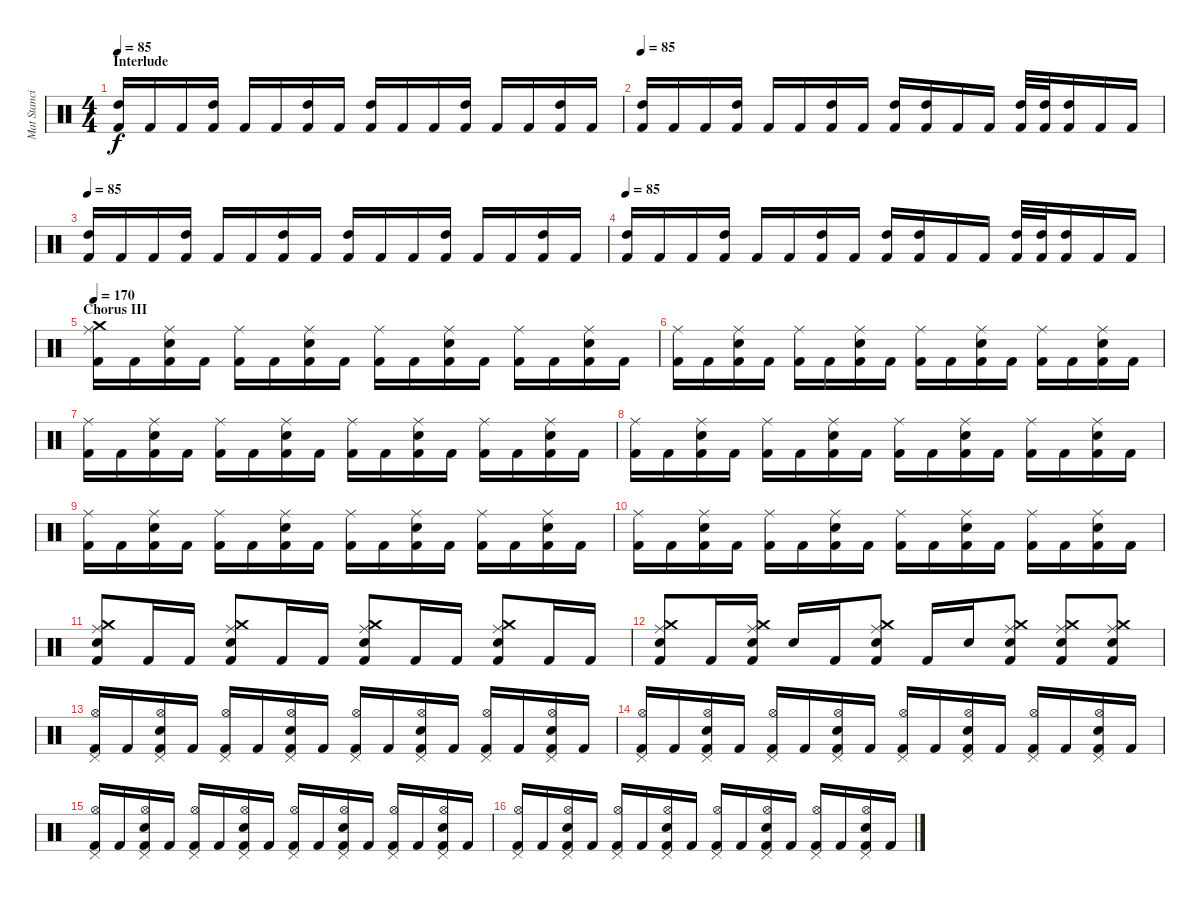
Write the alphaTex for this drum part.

\track ("Mat Stancioiu" "Mat Stanci") {instrument percussion}
\staff {score}
\articulation defaults
\ts (4 4)
\section ("" "Interlude")
\tempo 85
\clef neutral
\ks c
("High Tom (hit)" "Kick (hit) 2").16{dy f volume 10} "Kick (hit) 2".16 "Kick (hit) 2".16 ("High Tom (hit)" "Kick (hit) 2").16 "Kick (hit) 2".16 "Kick (hit) 2".16 ("High Tom (hit)" "Kick (hit) 2").16 "Kick (hit) 2".16 ("High Tom (hit)" "Kick (hit) 2").16 "Kick (hit) 2".16 "Kick (hit) 2".16 ("High Tom (hit)" "Kick (hit) 2").16 "Kick (hit) 2".16 "Kick (hit) 2".16 ("High Tom (hit)" "Kick (hit) 2").16 "Kick (hit) 2".16 |
\tempo 85
("High Tom (hit)" "Kick (hit) 2").16{volume 10} "Kick (hit) 2".16 "Kick (hit) 2".16 ("High Tom (hit)" "Kick (hit) 2").16 "Kick (hit) 2".16 "Kick (hit) 2".16 ("High Tom (hit)" "Kick (hit) 2").16 "Kick (hit) 2".16 ("High Tom (hit)" "Kick (hit) 2").16 ("High Tom (hit)" "Kick (hit) 2").16 "Kick (hit) 2".16 "Kick (hit) 2".16 ("High Tom (hit)" "Kick (hit) 2").32 ("High Tom (hit)" "Kick (hit) 2").32 ("High Tom (hit)" "Kick (hit) 2").16 "Kick (hit) 2".16 "Kick (hit) 2".16 |
\tempo 85
("High Tom (hit)" "Kick (hit) 2").16 "Kick (hit) 2".16 "Kick (hit) 2".16 ("High Tom (hit)" "Kick (hit) 2").16 "Kick (hit) 2".16 "Kick (hit) 2".16 ("High Tom (hit)" "Kick (hit) 2").16 "Kick (hit) 2".16 ("High Tom (hit)" "Kick (hit) 2").16 "Kick (hit) 2".16 "Kick (hit) 2".16 ("High Tom (hit)" "Kick (hit) 2").16 "Kick (hit) 2".16 "Kick (hit) 2".16 ("High Tom (hit)" "Kick (hit) 2").16 "Kick (hit) 2".16 |
\tempo 85
("High Tom (hit)" "Kick (hit) 2").16 "Kick (hit) 2".16 "Kick (hit) 2".16 ("High Tom (hit)" "Kick (hit) 2").16 "Kick (hit) 2".16 "Kick (hit) 2".16 ("High Tom (hit)" "Kick (hit) 2").16 "Kick (hit) 2".16 ("High Tom (hit)" "Kick (hit) 2").16 ("High Tom (hit)" "Kick (hit) 2").16 "Kick (hit) 2".16 "Kick (hit) 2".16 ("High Tom (hit)" "Kick (hit) 2").32 ("High Tom (hit)" "Kick (hit) 2").32 ("High Tom (hit)" "Kick (hit) 2").16 "Kick (hit) 2".16 "Kick (hit) 2".16 |
\section ("" "Chorus III")
\tempo 170
("Crash medium (hit)" "Kick (hit) 2" "Ride (middle)").16{volume 14} "Kick (hit) 2".16 ("Electric Snare (hit)" "Kick (hit) 2" "Ride (middle)").16 "Kick (hit) 2".16 ("Kick (hit) 2" "Ride (middle)").16 "Kick (hit) 2".16 ("Electric Snare (hit)" "Kick (hit) 2" "Ride (middle)").16 "Kick (hit) 2".16 ("Kick (hit) 2" "Ride (middle)").16 "Kick (hit) 2".16 ("Electric Snare (hit)" "Kick (hit) 2" "Ride (middle)").16 "Kick (hit) 2".16 ("Kick (hit) 2" "Ride (middle)").16 "Kick (hit) 2".16 ("Electric Snare (hit)" "Kick (hit) 2" "Ride (middle)").16 "Kick (hit) 2".16 |
("Kick (hit) 2" "Ride (middle)").16 "Kick (hit) 2".16 ("Electric Snare (hit)" "Kick (hit) 2" "Ride (middle)").16 "Kick (hit) 2".16 ("Kick (hit) 2" "Ride (middle)").16 "Kick (hit) 2".16 ("Electric Snare (hit)" "Kick (hit) 2" "Ride (middle)").16 "Kick (hit) 2".16 ("Kick (hit) 2" "Ride (middle)").16 "Kick (hit) 2".16 ("Electric Snare (hit)" "Kick (hit) 2" "Ride (middle)").16 "Kick (hit) 2".16 ("Kick (hit) 2" "Ride (middle)").16 "Kick (hit) 2".16 ("Electric Snare (hit)" "Kick (hit) 2" "Ride (middle)").16 "Kick (hit) 2".16 |
("Kick (hit) 2" "Ride (middle)").16 "Kick (hit) 2".16 ("Electric Snare (hit)" "Kick (hit) 2" "Ride (middle)").16 "Kick (hit) 2".16 ("Kick (hit) 2" "Ride (middle)").16 "Kick (hit) 2".16 ("Electric Snare (hit)" "Kick (hit) 2" "Ride (middle)").16 "Kick (hit) 2".16 ("Kick (hit) 2" "Ride (middle)").16 "Kick (hit) 2".16 ("Electric Snare (hit)" "Kick (hit) 2" "Ride (middle)").16 "Kick (hit) 2".16 ("Kick (hit) 2" "Ride (middle)").16 "Kick (hit) 2".16 ("Electric Snare (hit)" "Kick (hit) 2" "Ride (middle)").16 "Kick (hit) 2".16 |
("Kick (hit) 2" "Ride (middle)").16 "Kick (hit) 2".16 ("Electric Snare (hit)" "Kick (hit) 2" "Ride (middle)").16 "Kick (hit) 2".16 ("Kick (hit) 2" "Ride (middle)").16 "Kick (hit) 2".16 ("Electric Snare (hit)" "Kick (hit) 2" "Ride (middle)").16 "Kick (hit) 2".16 ("Kick (hit) 2" "Ride (middle)").16 "Kick (hit) 2".16 ("Electric Snare (hit)" "Kick (hit) 2" "Ride (middle)").16 "Kick (hit) 2".16 ("Kick (hit) 2" "Ride (middle)").16 "Kick (hit) 2".16 ("Electric Snare (hit)" "Kick (hit) 2" "Ride (middle)").16 "Kick (hit) 2".16 |
("Kick (hit) 2" "Ride (middle)").16 "Kick (hit) 2".16 ("Electric Snare (hit)" "Kick (hit) 2" "Ride (middle)").16 "Kick (hit) 2".16 ("Kick (hit) 2" "Ride (middle)").16 "Kick (hit) 2".16 ("Electric Snare (hit)" "Kick (hit) 2" "Ride (middle)").16 "Kick (hit) 2".16 ("Kick (hit) 2" "Ride (middle)").16 "Kick (hit) 2".16 ("Electric Snare (hit)" "Kick (hit) 2" "Ride (middle)").16 "Kick (hit) 2".16 ("Kick (hit) 2" "Ride (middle)").16 "Kick (hit) 2".16 ("Electric Snare (hit)" "Kick (hit) 2" "Ride (middle)").16 "Kick (hit) 2".16 |
("Kick (hit) 2" "Ride (middle)").16 "Kick (hit) 2".16 ("Electric Snare (hit)" "Kick (hit) 2" "Ride (middle)").16 "Kick (hit) 2".16 ("Kick (hit) 2" "Ride (middle)").16 "Kick (hit) 2".16 ("Electric Snare (hit)" "Kick (hit) 2" "Ride (middle)").16 "Kick (hit) 2".16 ("Kick (hit) 2" "Ride (middle)").16 "Kick (hit) 2".16 ("Electric Snare (hit)" "Kick (hit) 2" "Ride (middle)").16 "Kick (hit) 2".16 ("Kick (hit) 2" "Ride (middle)").16 "Kick (hit) 2".16 ("Electric Snare (hit)" "Kick (hit) 2" "Ride (middle)").16 "Kick (hit) 2".16 |
("Electric Snare (hit)" "Kick (hit) 2" "Crash medium (hit)" "Ride (middle)").8 "Kick (hit) 2".16 "Kick (hit) 2".16 ("Electric Snare (hit)" "Kick (hit) 2" "Crash medium (hit)" "Ride (middle)").8 "Kick (hit) 2".16 "Kick (hit) 2".16 ("Electric Snare (hit)" "Kick (hit) 2" "Crash medium (hit)" "Ride (middle)").8 "Kick (hit) 2".16 "Kick (hit) 2".16 ("Electric Snare (hit)" "Kick (hit) 2" "Crash medium (hit)" "Ride (middle)").8 "Kick (hit) 2".16 "Kick (hit) 2".16 |
("Electric Snare (hit)" "Kick (hit) 2" "Crash medium (hit)" "Ride (middle)").8 "Kick (hit) 2".16 ("Electric Snare (hit)" "Kick (hit) 2" "Crash medium (hit)" "Ride (middle)").16 "Electric Snare (hit)".16 "Kick (hit) 2".16 ("Electric Snare (hit)" "Kick (hit) 2" "Crash medium (hit)" "Ride (middle)").8 "Kick (hit) 2".16 "Electric Snare (hit)".16 ("Electric Snare (hit)" "Kick (hit) 2" "Crash medium (hit)" "Ride (middle)").8 ("Electric Snare (hit)" "Kick (hit) 2" "Crash medium (hit)" "Ride (middle)").8 ("Electric Snare (hit)" "Kick (hit) 2" "Crash medium (hit)" "Ride (middle)").8 |
("Hi-Hat (open)" "Kick (hit) 2" "Pedal Hi-Hat (hit)").16 "Kick (hit) 2".16 ("Electric Snare (hit)" "Hi-Hat (open)" "Kick (hit) 2" "Pedal Hi-Hat (hit)").16 "Kick (hit) 2".16 ("Hi-Hat (open)" "Kick (hit) 2" "Pedal Hi-Hat (hit)").16 "Kick (hit) 2".16 ("Electric Snare (hit)" "Hi-Hat (open)" "Kick (hit) 2" "Pedal Hi-Hat (hit)").16 "Kick (hit) 2".16 ("Hi-Hat (open)" "Kick (hit) 2" "Pedal Hi-Hat (hit)").16 "Kick (hit) 2".16 ("Electric Snare (hit)" "Hi-Hat (open)" "Kick (hit) 2" "Pedal Hi-Hat (hit)").16 "Kick (hit) 2".16 ("Hi-Hat (open)" "Kick (hit) 2" "Pedal Hi-Hat (hit)").16 "Kick (hit) 2".16 ("Electric Snare (hit)" "Hi-Hat (open)" "Kick (hit) 2" "Pedal Hi-Hat (hit)").16 "Kick (hit) 2".16 |
("Hi-Hat (open)" "Kick (hit) 2" "Pedal Hi-Hat (hit)").16 "Kick (hit) 2".16 ("Electric Snare (hit)" "Hi-Hat (open)" "Kick (hit) 2" "Pedal Hi-Hat (hit)").16 "Kick (hit) 2".16 ("Hi-Hat (open)" "Kick (hit) 2" "Pedal Hi-Hat (hit)").16 "Kick (hit) 2".16 ("Electric Snare (hit)" "Hi-Hat (open)" "Kick (hit) 2" "Pedal Hi-Hat (hit)").16 "Kick (hit) 2".16 ("Hi-Hat (open)" "Kick (hit) 2" "Pedal Hi-Hat (hit)").16 "Kick (hit) 2".16 ("Electric Snare (hit)" "Hi-Hat (open)" "Kick (hit) 2" "Pedal Hi-Hat (hit)").16 "Kick (hit) 2".16 ("Hi-Hat (open)" "Kick (hit) 2" "Pedal Hi-Hat (hit)").16 "Kick (hit) 2".16 ("Electric Snare (hit)" "Hi-Hat (open)" "Kick (hit) 2" "Pedal Hi-Hat (hit)").16 "Kick (hit) 2".16 |
("Hi-Hat (open)" "Kick (hit) 2" "Pedal Hi-Hat (hit)").16 "Kick (hit) 2".16 ("Electric Snare (hit)" "Hi-Hat (open)" "Kick (hit) 2" "Pedal Hi-Hat (hit)").16 "Kick (hit) 2".16 ("Hi-Hat (open)" "Kick (hit) 2" "Pedal Hi-Hat (hit)").16 "Kick (hit) 2".16 ("Electric Snare (hit)" "Hi-Hat (open)" "Kick (hit) 2" "Pedal Hi-Hat (hit)").16 "Kick (hit) 2".16 ("Hi-Hat (open)" "Kick (hit) 2" "Pedal Hi-Hat (hit)").16 "Kick (hit) 2".16 ("Electric Snare (hit)" "Hi-Hat (open)" "Kick (hit) 2" "Pedal Hi-Hat (hit)").16 "Kick (hit) 2".16 ("Hi-Hat (open)" "Kick (hit) 2" "Pedal Hi-Hat (hit)").16 "Kick (hit) 2".16 ("Electric Snare (hit)" "Hi-Hat (open)" "Kick (hit) 2" "Pedal Hi-Hat (hit)").16 "Kick (hit) 2".16 |
("Hi-Hat (open)" "Kick (hit) 2" "Pedal Hi-Hat (hit)").16 "Kick (hit) 2".16 ("Electric Snare (hit)" "Hi-Hat (open)" "Kick (hit) 2" "Pedal Hi-Hat (hit)").16 "Kick (hit) 2".16 ("Hi-Hat (open)" "Kick (hit) 2" "Pedal Hi-Hat (hit)").16 "Kick (hit) 2".16 ("Electric Snare (hit)" "Hi-Hat (open)" "Kick (hit) 2" "Pedal Hi-Hat (hit)").16 "Kick (hit) 2".16 ("Hi-Hat (open)" "Kick (hit) 2" "Pedal Hi-Hat (hit)").16 "Kick (hit) 2".16 ("Electric Snare (hit)" "Hi-Hat (open)" "Kick (hit) 2" "Pedal Hi-Hat (hit)").16 "Kick (hit) 2".16 ("Hi-Hat (open)" "Kick (hit) 2" "Pedal Hi-Hat (hit)").16 "Kick (hit) 2".16 ("Electric Snare (hit)" "Hi-Hat (open)" "Kick (hit) 2" "Pedal Hi-Hat (hit)").16 "Kick (hit) 2".16
